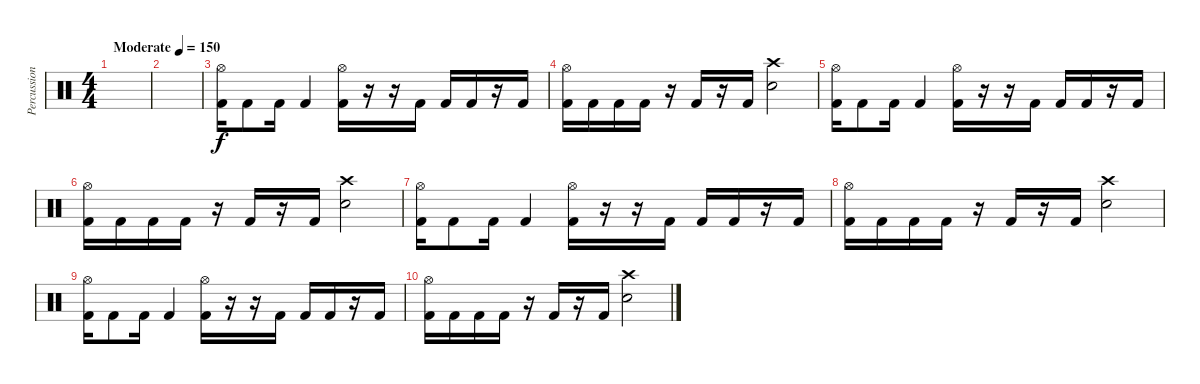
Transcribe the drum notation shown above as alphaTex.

\track ("Percussion" "Percussion") {instrument percussion}
\staff {score}
\articulation defaults
\ts (4 4)
\tempo (150 "Moderate")
\clef neutral
\ks c
|
|
("Kick (hit) 2" "Hi-Hat (open)").16 "Kick (hit) 2".8 "Kick (hit) 2".16 "Kick (hit) 2".4 ("Kick (hit) 2" "Hi-Hat (open)").16 r.16 r.16 "Kick (hit) 2".16 "Kick (hit) 2".16 "Kick (hit) 2".16 r.16 "Kick (hit) 2".16 |
("Kick (hit) 2" "Hi-Hat (open)").16 "Kick (hit) 2".16 "Kick (hit) 2".16 "Kick (hit) 2".16 r.16 "Kick (hit) 2".16 r.16 "Kick (hit) 2".16 ("Snare (hit) 2" "Crash high (hit)").2 |
("Kick (hit) 2" "Hi-Hat (open)").16 "Kick (hit) 2".8 "Kick (hit) 2".16 "Kick (hit) 2".4 ("Kick (hit) 2" "Hi-Hat (open)").16 r.16 r.16 "Kick (hit) 2".16 "Kick (hit) 2".16 "Kick (hit) 2".16 r.16 "Kick (hit) 2".16 |
("Kick (hit) 2" "Hi-Hat (open)").16 "Kick (hit) 2".16 "Kick (hit) 2".16 "Kick (hit) 2".16 r.16 "Kick (hit) 2".16 r.16 "Kick (hit) 2".16 ("Snare (hit) 2" "Crash high (hit)").2 |
("Kick (hit) 2" "Hi-Hat (open)").16 "Kick (hit) 2".8 "Kick (hit) 2".16 "Kick (hit) 2".4 ("Kick (hit) 2" "Hi-Hat (open)").16 r.16 r.16 "Kick (hit) 2".16 "Kick (hit) 2".16 "Kick (hit) 2".16 r.16 "Kick (hit) 2".16 |
("Kick (hit) 2" "Hi-Hat (open)").16 "Kick (hit) 2".16 "Kick (hit) 2".16 "Kick (hit) 2".16 r.16 "Kick (hit) 2".16 r.16 "Kick (hit) 2".16 ("Snare (hit) 2" "Crash high (hit)").2 |
("Kick (hit) 2" "Hi-Hat (open)").16 "Kick (hit) 2".8 "Kick (hit) 2".16 "Kick (hit) 2".4 ("Kick (hit) 2" "Hi-Hat (open)").16 r.16 r.16 "Kick (hit) 2".16 "Kick (hit) 2".16 "Kick (hit) 2".16 r.16 "Kick (hit) 2".16 |
("Kick (hit) 2" "Hi-Hat (open)").16 "Kick (hit) 2".16 "Kick (hit) 2".16 "Kick (hit) 2".16 r.16 "Kick (hit) 2".16 r.16 "Kick (hit) 2".16 ("Snare (hit) 2" "Crash high (hit)").2
